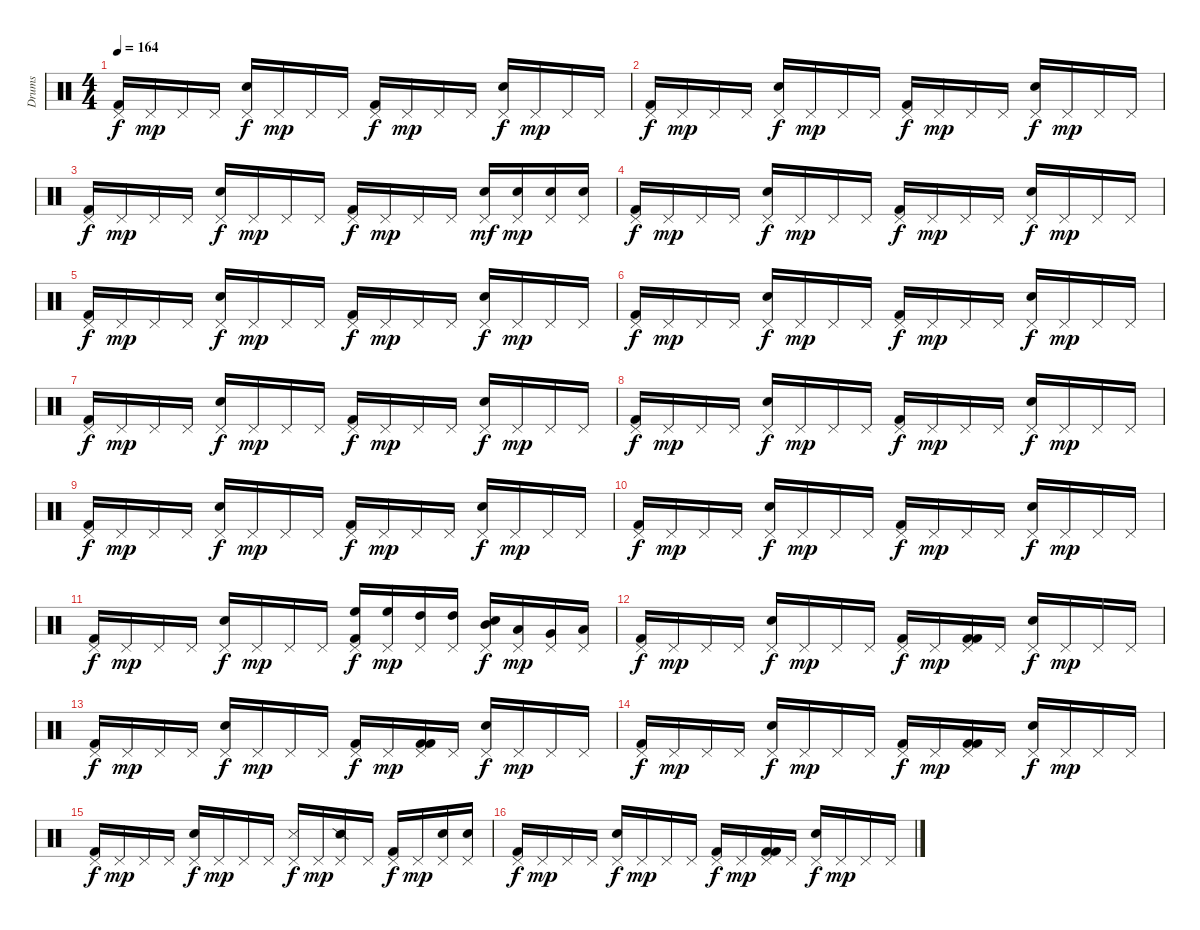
\track ("Drums" "Drums") {instrument percussion}
\staff {score}
\articulation defaults
\ts (4 4)
\tempo 164
\clef neutral
\ks c
("Pedal Hi-Hat (hit)" "Kick (hit) 2").16{dy f} "Pedal Hi-Hat (hit)".16{dy mp} "Pedal Hi-Hat (hit)".16 "Pedal Hi-Hat (hit)".16 ("Pedal Hi-Hat (hit)" "Snare (hit) 2").16{dy f} "Pedal Hi-Hat (hit)".16{dy mp} "Pedal Hi-Hat (hit)".16 "Pedal Hi-Hat (hit)".16 ("Pedal Hi-Hat (hit)" "Kick (hit) 2").16{dy f} "Pedal Hi-Hat (hit)".16{dy mp} "Pedal Hi-Hat (hit)".16 "Pedal Hi-Hat (hit)".16 ("Pedal Hi-Hat (hit)" "Snare (hit) 2").16{dy f} "Pedal Hi-Hat (hit)".16{dy mp} "Pedal Hi-Hat (hit)".16 "Pedal Hi-Hat (hit)".16 |
("Pedal Hi-Hat (hit)" "Kick (hit) 2").16{dy f} "Pedal Hi-Hat (hit)".16{dy mp} "Pedal Hi-Hat (hit)".16 "Pedal Hi-Hat (hit)".16 ("Pedal Hi-Hat (hit)" "Snare (hit) 2").16{dy f} "Pedal Hi-Hat (hit)".16{dy mp} "Pedal Hi-Hat (hit)".16 "Pedal Hi-Hat (hit)".16 ("Pedal Hi-Hat (hit)" "Kick (hit) 2").16{dy f} "Pedal Hi-Hat (hit)".16{dy mp} "Pedal Hi-Hat (hit)".16 "Pedal Hi-Hat (hit)".16 ("Pedal Hi-Hat (hit)" "Snare (hit) 2").16{dy f} "Pedal Hi-Hat (hit)".16{dy mp} "Pedal Hi-Hat (hit)".16 "Pedal Hi-Hat (hit)".16 |
("Pedal Hi-Hat (hit)" "Kick (hit) 2").16{dy f} "Pedal Hi-Hat (hit)".16{dy mp} "Pedal Hi-Hat (hit)".16 "Pedal Hi-Hat (hit)".16 ("Pedal Hi-Hat (hit)" "Snare (hit) 2").16{dy f} "Pedal Hi-Hat (hit)".16{dy mp} "Pedal Hi-Hat (hit)".16 "Pedal Hi-Hat (hit)".16 ("Pedal Hi-Hat (hit)" "Kick (hit) 2").16{dy f} "Pedal Hi-Hat (hit)".16{dy mp} "Pedal Hi-Hat (hit)".16 "Pedal Hi-Hat (hit)".16 ("Snare (hit) 2" "Pedal Hi-Hat (hit)").16{dy mf} ("Snare (hit) 2" "Pedal Hi-Hat (hit)").16{dy mp} ("Snare (hit) 2" "Pedal Hi-Hat (hit)").16 ("Snare (hit) 2" "Pedal Hi-Hat (hit)").16 |
("Pedal Hi-Hat (hit)" "Kick (hit) 2").16{dy f} "Pedal Hi-Hat (hit)".16{dy mp} "Pedal Hi-Hat (hit)".16 "Pedal Hi-Hat (hit)".16 ("Pedal Hi-Hat (hit)" "Snare (hit) 2").16{dy f} "Pedal Hi-Hat (hit)".16{dy mp} "Pedal Hi-Hat (hit)".16 "Pedal Hi-Hat (hit)".16 ("Pedal Hi-Hat (hit)" "Kick (hit) 2").16{dy f} "Pedal Hi-Hat (hit)".16{dy mp} "Pedal Hi-Hat (hit)".16 "Pedal Hi-Hat (hit)".16 ("Pedal Hi-Hat (hit)" "Snare (hit) 2").16{dy f} "Pedal Hi-Hat (hit)".16{dy mp} "Pedal Hi-Hat (hit)".16 "Pedal Hi-Hat (hit)".16 |
("Pedal Hi-Hat (hit)" "Kick (hit) 2").16{dy f} "Pedal Hi-Hat (hit)".16{dy mp} "Pedal Hi-Hat (hit)".16 "Pedal Hi-Hat (hit)".16 ("Pedal Hi-Hat (hit)" "Snare (hit) 2").16{dy f} "Pedal Hi-Hat (hit)".16{dy mp} "Pedal Hi-Hat (hit)".16 "Pedal Hi-Hat (hit)".16 ("Pedal Hi-Hat (hit)" "Kick (hit) 2").16{dy f} "Pedal Hi-Hat (hit)".16{dy mp} "Pedal Hi-Hat (hit)".16 "Pedal Hi-Hat (hit)".16 ("Pedal Hi-Hat (hit)" "Snare (hit) 2").16{dy f} "Pedal Hi-Hat (hit)".16{dy mp} "Pedal Hi-Hat (hit)".16 "Pedal Hi-Hat (hit)".16 |
("Pedal Hi-Hat (hit)" "Kick (hit) 2").16{dy f} "Pedal Hi-Hat (hit)".16{dy mp} "Pedal Hi-Hat (hit)".16 "Pedal Hi-Hat (hit)".16 ("Pedal Hi-Hat (hit)" "Snare (hit) 2").16{dy f} "Pedal Hi-Hat (hit)".16{dy mp} "Pedal Hi-Hat (hit)".16 "Pedal Hi-Hat (hit)".16 ("Pedal Hi-Hat (hit)" "Kick (hit) 2").16{dy f} "Pedal Hi-Hat (hit)".16{dy mp} "Pedal Hi-Hat (hit)".16 "Pedal Hi-Hat (hit)".16 ("Pedal Hi-Hat (hit)" "Snare (hit) 2").16{dy f} "Pedal Hi-Hat (hit)".16{dy mp} "Pedal Hi-Hat (hit)".16 "Pedal Hi-Hat (hit)".16 |
("Pedal Hi-Hat (hit)" "Kick (hit) 2").16{dy f} "Pedal Hi-Hat (hit)".16{dy mp} "Pedal Hi-Hat (hit)".16 "Pedal Hi-Hat (hit)".16 ("Pedal Hi-Hat (hit)" "Snare (hit) 2").16{dy f} "Pedal Hi-Hat (hit)".16{dy mp} "Pedal Hi-Hat (hit)".16 "Pedal Hi-Hat (hit)".16 ("Pedal Hi-Hat (hit)" "Kick (hit) 2").16{dy f} "Pedal Hi-Hat (hit)".16{dy mp} "Pedal Hi-Hat (hit)".16 "Pedal Hi-Hat (hit)".16 ("Pedal Hi-Hat (hit)" "Snare (hit) 2").16{dy f} "Pedal Hi-Hat (hit)".16{dy mp} "Pedal Hi-Hat (hit)".16 "Pedal Hi-Hat (hit)".16 |
("Pedal Hi-Hat (hit)" "Kick (hit) 2").16{dy f} "Pedal Hi-Hat (hit)".16{dy mp} "Pedal Hi-Hat (hit)".16 "Pedal Hi-Hat (hit)".16 ("Pedal Hi-Hat (hit)" "Snare (hit) 2").16{dy f} "Pedal Hi-Hat (hit)".16{dy mp} "Pedal Hi-Hat (hit)".16 "Pedal Hi-Hat (hit)".16 ("Pedal Hi-Hat (hit)" "Kick (hit) 2").16{dy f} "Pedal Hi-Hat (hit)".16{dy mp} "Pedal Hi-Hat (hit)".16 "Pedal Hi-Hat (hit)".16 ("Pedal Hi-Hat (hit)" "Snare (hit) 2").16{dy f} "Pedal Hi-Hat (hit)".16{dy mp} "Pedal Hi-Hat (hit)".16 "Pedal Hi-Hat (hit)".16 |
("Pedal Hi-Hat (hit)" "Kick (hit) 2").16{dy f} "Pedal Hi-Hat (hit)".16{dy mp} "Pedal Hi-Hat (hit)".16 "Pedal Hi-Hat (hit)".16 ("Pedal Hi-Hat (hit)" "Snare (hit) 2").16{dy f} "Pedal Hi-Hat (hit)".16{dy mp} "Pedal Hi-Hat (hit)".16 "Pedal Hi-Hat (hit)".16 ("Pedal Hi-Hat (hit)" "Kick (hit) 2").16{dy f} "Pedal Hi-Hat (hit)".16{dy mp} "Pedal Hi-Hat (hit)".16 "Pedal Hi-Hat (hit)".16 ("Pedal Hi-Hat (hit)" "Snare (hit) 2").16{dy f} "Pedal Hi-Hat (hit)".16{dy mp} "Pedal Hi-Hat (hit)".16 "Pedal Hi-Hat (hit)".16 |
("Pedal Hi-Hat (hit)" "Kick (hit) 2").16{dy f} "Pedal Hi-Hat (hit)".16{dy mp} "Pedal Hi-Hat (hit)".16 "Pedal Hi-Hat (hit)".16 ("Pedal Hi-Hat (hit)" "Snare (hit) 2").16{dy f} "Pedal Hi-Hat (hit)".16{dy mp} "Pedal Hi-Hat (hit)".16 "Pedal Hi-Hat (hit)".16 ("Pedal Hi-Hat (hit)" "Kick (hit) 2").16{dy f} "Pedal Hi-Hat (hit)".16{dy mp} "Pedal Hi-Hat (hit)".16 "Pedal Hi-Hat (hit)".16 ("Pedal Hi-Hat (hit)" "Snare (hit) 2").16{dy f} "Pedal Hi-Hat (hit)".16{dy mp} "Pedal Hi-Hat (hit)".16 "Pedal Hi-Hat (hit)".16 |
("Pedal Hi-Hat (hit)" "Kick (hit) 2").16{dy f} "Pedal Hi-Hat (hit)".16{dy mp} "Pedal Hi-Hat (hit)".16 "Pedal Hi-Hat (hit)".16 ("Pedal Hi-Hat (hit)" "Snare (hit) 2").16{dy f} "Pedal Hi-Hat (hit)".16{dy mp} "Pedal Hi-Hat (hit)".16 "Pedal Hi-Hat (hit)".16 ("Pedal Hi-Hat (hit)" "Kick (hit) 2" "High Floor Tom (hit)").16{dy f} ("Pedal Hi-Hat (hit)" "High Floor Tom (hit)").16{dy mp} ("Pedal Hi-Hat (hit)" "High Tom (hit)").16 ("Pedal Hi-Hat (hit)" "High Tom (hit)").16 ("Pedal Hi-Hat (hit)" "Snare (hit) 2" "Mid Tom (hit)").16{dy f} ("Pedal Hi-Hat (hit)" "Low Tom (hit)").16{dy mp} ("Pedal Hi-Hat (hit)" "Very Low Tom (hit)").16 ("Pedal Hi-Hat (hit)" "Low Floor Tom (hit)").16 |
("Pedal Hi-Hat (hit)" "Kick (hit) 2").16{dy f} "Pedal Hi-Hat (hit)".16{dy mp} "Pedal Hi-Hat (hit)".16 "Pedal Hi-Hat (hit)".16 ("Pedal Hi-Hat (hit)" "Snare (hit) 2").16{dy f} "Pedal Hi-Hat (hit)".16{dy mp} "Pedal Hi-Hat (hit)".16 "Pedal Hi-Hat (hit)".16 ("Pedal Hi-Hat (hit)" "Kick (hit) 2").16{dy f} "Pedal Hi-Hat (hit)".16{dy mp} ("Pedal Hi-Hat (hit)" "Kick (hit) 2" "Kick (hit) 2").16 "Pedal Hi-Hat (hit)".16 ("Pedal Hi-Hat (hit)" "Snare (hit) 2").16{dy f} "Pedal Hi-Hat (hit)".16{dy mp} "Pedal Hi-Hat (hit)".16 "Pedal Hi-Hat (hit)".16 |
("Pedal Hi-Hat (hit)" "Kick (hit) 2").16{dy f} "Pedal Hi-Hat (hit)".16{dy mp} "Pedal Hi-Hat (hit)".16 "Pedal Hi-Hat (hit)".16 ("Pedal Hi-Hat (hit)" "Snare (hit) 2").16{dy f} "Pedal Hi-Hat (hit)".16{dy mp} "Pedal Hi-Hat (hit)".16 "Pedal Hi-Hat (hit)".16 ("Pedal Hi-Hat (hit)" "Kick (hit) 2").16{dy f} "Pedal Hi-Hat (hit)".16{dy mp} ("Pedal Hi-Hat (hit)" "Kick (hit) 2" "Kick (hit) 2").16 "Pedal Hi-Hat (hit)".16 ("Pedal Hi-Hat (hit)" "Snare (hit) 2").16{dy f} "Pedal Hi-Hat (hit)".16{dy mp} "Pedal Hi-Hat (hit)".16 "Pedal Hi-Hat (hit)".16 |
("Pedal Hi-Hat (hit)" "Kick (hit) 2").16{dy f} "Pedal Hi-Hat (hit)".16{dy mp} "Pedal Hi-Hat (hit)".16 "Pedal Hi-Hat (hit)".16 ("Pedal Hi-Hat (hit)" "Snare (hit) 2").16{dy f} "Pedal Hi-Hat (hit)".16{dy mp} "Pedal Hi-Hat (hit)".16 "Pedal Hi-Hat (hit)".16 ("Pedal Hi-Hat (hit)" "Kick (hit) 2").16{dy f} "Pedal Hi-Hat (hit)".16{dy mp} ("Pedal Hi-Hat (hit)" "Kick (hit) 2" "Kick (hit) 2").16 "Pedal Hi-Hat (hit)".16 ("Pedal Hi-Hat (hit)" "Snare (hit) 2").16{dy f} "Pedal Hi-Hat (hit)".16{dy mp} "Pedal Hi-Hat (hit)".16 "Pedal Hi-Hat (hit)".16 |
("Pedal Hi-Hat (hit)" "Kick (hit) 2").16{dy f} "Pedal Hi-Hat (hit)".16{dy mp} "Pedal Hi-Hat (hit)".16 "Pedal Hi-Hat (hit)".16 ("Pedal Hi-Hat (hit)" "Snare (hit) 2").16{dy f} "Pedal Hi-Hat (hit)".16{dy mp} "Pedal Hi-Hat (hit)".16 "Pedal Hi-Hat (hit)".16 ("Pedal Hi-Hat (hit)" "Metronome (hit)").16{dy f} "Pedal Hi-Hat (hit)".16{dy mp} ("Pedal Hi-Hat (hit)" "Snare (side stick) 2").16 "Pedal Hi-Hat (hit)".16 ("Pedal Hi-Hat (hit)" "Kick (hit) 2").16{dy f} "Pedal Hi-Hat (hit)".16{dy mp} ("Snare (hit) 2" "Pedal Hi-Hat (hit)").16 ("Snare (hit) 2" "Pedal Hi-Hat (hit)").16 |
("Pedal Hi-Hat (hit)" "Kick (hit) 2").16{dy f} "Pedal Hi-Hat (hit)".16{dy mp} "Pedal Hi-Hat (hit)".16 "Pedal Hi-Hat (hit)".16 ("Pedal Hi-Hat (hit)" "Snare (hit) 2").16{dy f} "Pedal Hi-Hat (hit)".16{dy mp} "Pedal Hi-Hat (hit)".16 "Pedal Hi-Hat (hit)".16 ("Pedal Hi-Hat (hit)" "Kick (hit) 2").16{dy f} "Pedal Hi-Hat (hit)".16{dy mp} ("Pedal Hi-Hat (hit)" "Kick (hit) 2" "Kick (hit) 2").16 "Pedal Hi-Hat (hit)".16 ("Pedal Hi-Hat (hit)" "Snare (hit) 2").16{dy f} "Pedal Hi-Hat (hit)".16{dy mp} "Pedal Hi-Hat (hit)".16 "Pedal Hi-Hat (hit)".16
